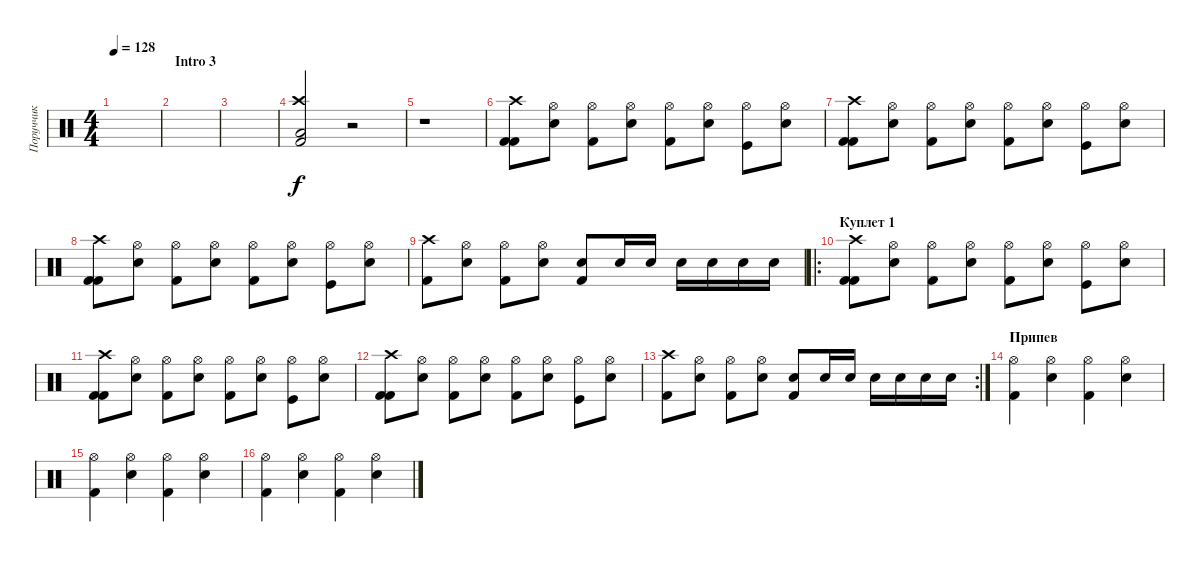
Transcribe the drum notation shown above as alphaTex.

\track ("Поруччик" "Поруччик") {instrument percussion}
\staff {score}
\articulation defaults
\ts (4 4)
\tempo 128
\clef neutral
\ks c
|
\section ("" "Intro 3")
|
|
("Kick (hit) 2" "Crash high (hit)" "Low Tom (hit)").2 r.2 |
r.1 |
("Crash high (hit)" "Kick (hit) 2" "Kick (hit) 2").8 ("Hi-Hat (open)" "Snare (hit) 2").8 ("Hi-Hat (open)" "Kick (hit) 2").8 ("Hi-Hat (open)" "Snare (hit) 2").8 ("Hi-Hat (open)" "Kick (hit) 2").8 ("Hi-Hat (open)" "Snare (hit) 2").8 ("Hi-Hat (open)" "Kick (hit)").8 ("Snare (hit) 2" "Hi-Hat (open)").8 |
("Crash high (hit)" "Kick (hit) 2" "Kick (hit) 2").8 ("Hi-Hat (open)" "Snare (hit) 2").8 ("Hi-Hat (open)" "Kick (hit) 2").8 ("Hi-Hat (open)" "Snare (hit) 2").8 ("Hi-Hat (open)" "Kick (hit) 2").8 ("Hi-Hat (open)" "Snare (hit) 2").8 ("Hi-Hat (open)" "Kick (hit)").8 ("Snare (hit) 2" "Hi-Hat (open)").8 |
("Crash high (hit)" "Kick (hit) 2" "Kick (hit) 2").8 ("Hi-Hat (open)" "Snare (hit) 2").8 ("Hi-Hat (open)" "Kick (hit) 2").8 ("Hi-Hat (open)" "Snare (hit) 2").8 ("Hi-Hat (open)" "Kick (hit) 2").8 ("Hi-Hat (open)" "Snare (hit) 2").8 ("Hi-Hat (open)" "Kick (hit)").8 ("Snare (hit) 2" "Hi-Hat (open)").8 |
("Kick (hit) 2" "Crash high (hit)").8 ("Snare (hit) 2" "Hi-Hat (open)").8 ("Kick (hit) 2" "Hi-Hat (open)").8 ("Snare (hit) 2" "Hi-Hat (open)").8 ("Snare (hit) 2" "Kick (hit) 2").8 "Snare (hit) 2".16 "Snare (hit) 2".16 "Snare (hit) 2".16 "Snare (hit) 2".16 "Snare (hit) 2".16 "Snare (hit) 2".16 |
\ro
\section ("" "Куплет 1")
("Crash high (hit)" "Kick (hit) 2" "Kick (hit) 2").8 ("Hi-Hat (open)" "Snare (hit) 2").8 ("Hi-Hat (open)" "Kick (hit) 2").8 ("Hi-Hat (open)" "Snare (hit) 2").8 ("Hi-Hat (open)" "Kick (hit) 2").8 ("Hi-Hat (open)" "Snare (hit) 2").8 ("Hi-Hat (open)" "Kick (hit)").8 ("Snare (hit) 2" "Hi-Hat (open)").8 |
("Crash high (hit)" "Kick (hit) 2" "Kick (hit) 2").8 ("Hi-Hat (open)" "Snare (hit) 2").8 ("Hi-Hat (open)" "Kick (hit) 2").8 ("Hi-Hat (open)" "Snare (hit) 2").8 ("Hi-Hat (open)" "Kick (hit) 2").8 ("Hi-Hat (open)" "Snare (hit) 2").8 ("Hi-Hat (open)" "Kick (hit)").8 ("Snare (hit) 2" "Hi-Hat (open)").8 |
("Crash high (hit)" "Kick (hit) 2" "Kick (hit) 2").8 ("Hi-Hat (open)" "Snare (hit) 2").8 ("Hi-Hat (open)" "Kick (hit) 2").8 ("Hi-Hat (open)" "Snare (hit) 2").8 ("Hi-Hat (open)" "Kick (hit) 2").8 ("Hi-Hat (open)" "Snare (hit) 2").8 ("Hi-Hat (open)" "Kick (hit)").8 ("Snare (hit) 2" "Hi-Hat (open)").8 |
\rc 2
("Kick (hit) 2" "Crash high (hit)").8 ("Snare (hit) 2" "Hi-Hat (open)").8 ("Kick (hit) 2" "Hi-Hat (open)").8 ("Snare (hit) 2" "Hi-Hat (open)").8 ("Snare (hit) 2" "Kick (hit) 2").8 "Snare (hit) 2".16 "Snare (hit) 2".16 "Snare (hit) 2".16 "Snare (hit) 2".16 "Snare (hit) 2".16 "Snare (hit) 2".16 |
\section ("" "Припев")
("Hi-Hat (open)" "Kick (hit) 2").4 ("Hi-Hat (open)" "Electric Snare (hit)").4 ("Hi-Hat (open)" "Kick (hit) 2").4 ("Hi-Hat (open)" "Electric Snare (hit)").4 |
("Hi-Hat (open)" "Kick (hit) 2").4 ("Hi-Hat (open)" "Electric Snare (hit)").4 ("Hi-Hat (open)" "Kick (hit) 2").4 ("Hi-Hat (open)" "Electric Snare (hit)").4 |
("Hi-Hat (open)" "Kick (hit) 2").4 ("Hi-Hat (open)" "Electric Snare (hit)").4 ("Hi-Hat (open)" "Kick (hit) 2").4 ("Hi-Hat (open)" "Electric Snare (hit)").4
